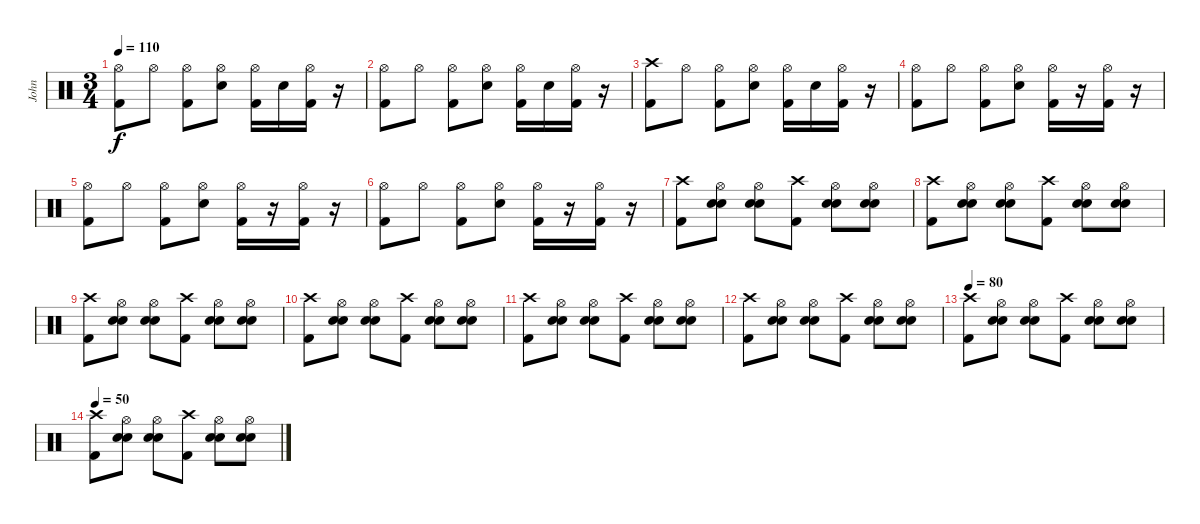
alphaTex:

\track ("John" "John") {instrument percussion}
\staff {score}
\articulation defaults
\ts (3 4)
\tempo 110
\clef neutral
\ks c
("Hi-Hat (open)" "Kick (hit) 2").8{dy f} "Hi-Hat (open)".8 ("Hi-Hat (open)" "Kick (hit) 2").8 ("Hi-Hat (open)" "Electric Snare (hit)").8 ("Hi-Hat (open)" "Kick (hit) 2").16 "Electric Snare (hit)".16 ("Hi-Hat (open)" "Kick (hit) 2").16 r.16 |
("Hi-Hat (open)" "Kick (hit) 2").8 "Hi-Hat (open)".8 ("Hi-Hat (open)" "Kick (hit) 2").8 ("Hi-Hat (open)" "Electric Snare (hit)").8 ("Hi-Hat (open)" "Kick (hit) 2").16 "Electric Snare (hit)".16 ("Hi-Hat (open)" "Kick (hit) 2").16 r.16 |
("Crash high (hit)" "Kick (hit) 2").8 "Hi-Hat (open)".8 ("Hi-Hat (open)" "Kick (hit) 2").8 ("Hi-Hat (open)" "Electric Snare (hit)").8 ("Hi-Hat (open)" "Kick (hit) 2").16 "Electric Snare (hit)".16 ("Hi-Hat (open)" "Kick (hit) 2").16 r.16 |
("Hi-Hat (open)" "Kick (hit) 2").8 "Hi-Hat (open)".8 ("Hi-Hat (open)" "Kick (hit) 2").8 ("Hi-Hat (open)" "Electric Snare (hit)").8 ("Hi-Hat (open)" "Kick (hit) 2").16 r.16 ("Hi-Hat (open)" "Kick (hit) 2").16 r.16 |
("Hi-Hat (open)" "Kick (hit) 2").8 "Hi-Hat (open)".8 ("Hi-Hat (open)" "Kick (hit) 2").8 ("Hi-Hat (open)" "Electric Snare (hit)").8 ("Hi-Hat (open)" "Kick (hit) 2").16 r.16 ("Hi-Hat (open)" "Kick (hit) 2").16 r.16 |
("Hi-Hat (open)" "Kick (hit) 2").8 "Hi-Hat (open)".8 ("Hi-Hat (open)" "Kick (hit) 2").8 ("Hi-Hat (open)" "Electric Snare (hit)").8 ("Hi-Hat (open)" "Kick (hit) 2").16 r.16 ("Hi-Hat (open)" "Kick (hit) 2").16 r.16 |
("Crash high (hit)" "Kick (hit) 2").8 ("Hi-Hat (open)" "Electric Snare (hit)" "Electric Snare (hit)").8 ("Hi-Hat (open)" "Electric Snare (hit)" "Electric Snare (hit)").8 ("Crash high (hit)" "Kick (hit) 2").8 ("Hi-Hat (open)" "Electric Snare (hit)" "Electric Snare (hit)").8 ("Hi-Hat (open)" "Electric Snare (hit)" "Electric Snare (hit)").8 |
("Crash high (hit)" "Kick (hit) 2").8 ("Hi-Hat (open)" "Electric Snare (hit)" "Electric Snare (hit)").8 ("Hi-Hat (open)" "Electric Snare (hit)" "Electric Snare (hit)").8 ("Crash high (hit)" "Kick (hit) 2").8 ("Hi-Hat (open)" "Electric Snare (hit)" "Electric Snare (hit)").8 ("Hi-Hat (open)" "Electric Snare (hit)" "Electric Snare (hit)").8 |
("Crash high (hit)" "Kick (hit) 2").8 ("Hi-Hat (open)" "Electric Snare (hit)" "Electric Snare (hit)").8 ("Hi-Hat (open)" "Electric Snare (hit)" "Electric Snare (hit)").8 ("Crash high (hit)" "Kick (hit) 2").8 ("Hi-Hat (open)" "Electric Snare (hit)" "Electric Snare (hit)").8 ("Hi-Hat (open)" "Electric Snare (hit)" "Electric Snare (hit)").8 |
("Crash high (hit)" "Kick (hit) 2").8 ("Hi-Hat (open)" "Electric Snare (hit)" "Electric Snare (hit)").8 ("Hi-Hat (open)" "Electric Snare (hit)" "Electric Snare (hit)").8 ("Crash high (hit)" "Kick (hit) 2").8 ("Hi-Hat (open)" "Electric Snare (hit)" "Electric Snare (hit)").8 ("Hi-Hat (open)" "Electric Snare (hit)" "Electric Snare (hit)").8 |
("Crash high (hit)" "Kick (hit) 2").8 ("Hi-Hat (open)" "Electric Snare (hit)" "Electric Snare (hit)").8 ("Hi-Hat (open)" "Electric Snare (hit)" "Electric Snare (hit)").8 ("Crash high (hit)" "Kick (hit) 2").8 ("Hi-Hat (open)" "Electric Snare (hit)" "Electric Snare (hit)").8 ("Hi-Hat (open)" "Electric Snare (hit)" "Electric Snare (hit)").8 |
("Crash high (hit)" "Kick (hit) 2").8 ("Hi-Hat (open)" "Electric Snare (hit)" "Electric Snare (hit)").8 ("Hi-Hat (open)" "Electric Snare (hit)" "Electric Snare (hit)").8 ("Crash high (hit)" "Kick (hit) 2").8 ("Hi-Hat (open)" "Electric Snare (hit)" "Electric Snare (hit)").8 ("Hi-Hat (open)" "Electric Snare (hit)" "Electric Snare (hit)").8 |
\tempo 80
("Crash high (hit)" "Kick (hit) 2").8 ("Hi-Hat (open)" "Electric Snare (hit)" "Electric Snare (hit)").8 ("Hi-Hat (open)" "Electric Snare (hit)" "Electric Snare (hit)").8 ("Crash high (hit)" "Kick (hit) 2").8 ("Hi-Hat (open)" "Electric Snare (hit)" "Electric Snare (hit)").8 ("Hi-Hat (open)" "Electric Snare (hit)" "Electric Snare (hit)").8 |
\tempo 50
("Crash high (hit)" "Kick (hit) 2").8 ("Hi-Hat (open)" "Electric Snare (hit)" "Electric Snare (hit)").8 ("Hi-Hat (open)" "Electric Snare (hit)" "Electric Snare (hit)").8 ("Crash high (hit)" "Kick (hit) 2").8 ("Hi-Hat (open)" "Electric Snare (hit)" "Electric Snare (hit)").8 ("Hi-Hat (open)" "Electric Snare (hit)" "Electric Snare (hit)").8
